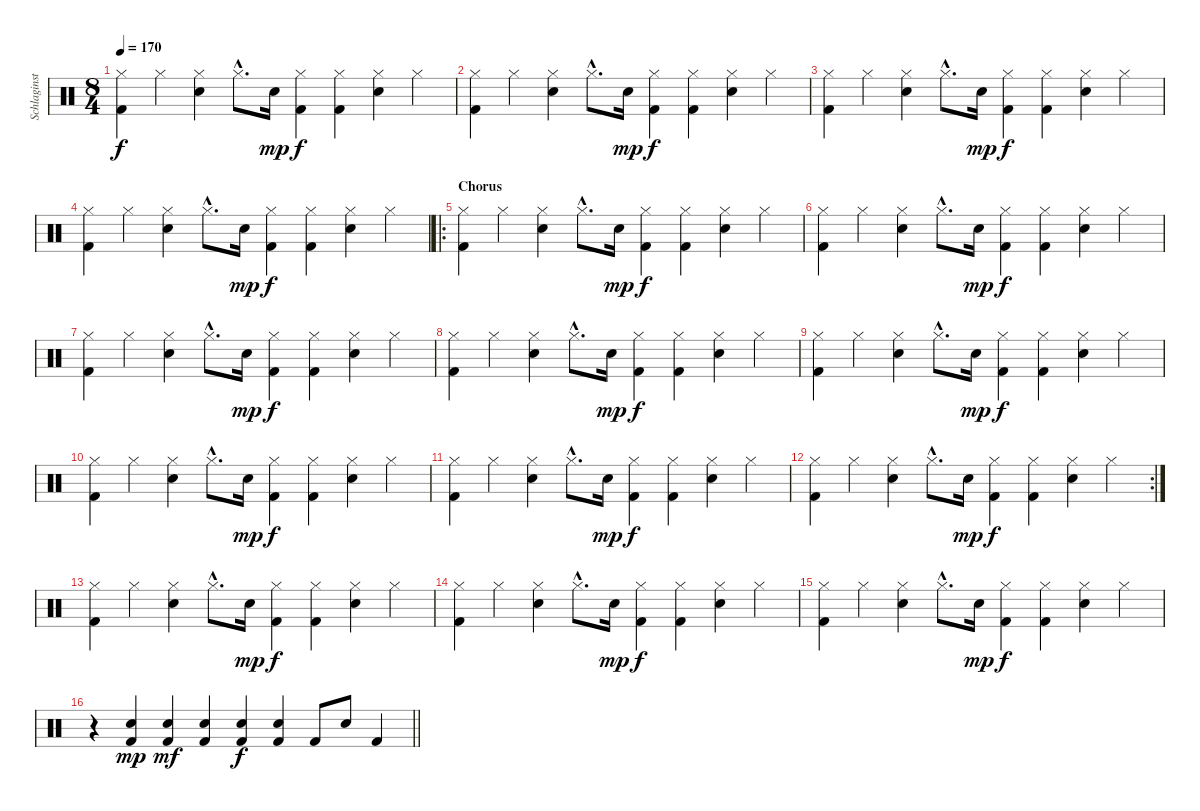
\track ("Schlaginstrumente - Auswahl" "Schlaginst") {instrument percussion}
\staff {score}
\articulation defaults
\ts (8 4)
\tempo 170
\clef neutral
\ks c
("Hi-Hat (closed)" "Kick (hit) 2").4{dy f} "Hi-Hat (closed)".4 ("Hi-Hat (closed)" "Electric Snare (hit)").4 "Hi-Hat (closed)"{hac}.8{d} "Electric Snare (hit)".16{dy mp} ("Hi-Hat (closed)" "Kick (hit) 2").4{dy f} ("Hi-Hat (closed)" "Kick (hit) 2").4 ("Hi-Hat (closed)" "Electric Snare (hit)").4 "Hi-Hat (closed)".4 |
("Hi-Hat (closed)" "Kick (hit) 2").4 "Hi-Hat (closed)".4 ("Hi-Hat (closed)" "Electric Snare (hit)").4 "Hi-Hat (closed)"{hac}.8{d} "Electric Snare (hit)".16{dy mp} ("Hi-Hat (closed)" "Kick (hit) 2").4{dy f} ("Hi-Hat (closed)" "Kick (hit) 2").4 ("Hi-Hat (closed)" "Electric Snare (hit)").4 "Hi-Hat (closed)".4 |
("Hi-Hat (closed)" "Kick (hit) 2").4 "Hi-Hat (closed)".4 ("Hi-Hat (closed)" "Electric Snare (hit)").4 "Hi-Hat (closed)"{hac}.8{d} "Electric Snare (hit)".16{dy mp} ("Hi-Hat (closed)" "Kick (hit) 2").4{dy f} ("Hi-Hat (closed)" "Kick (hit) 2").4 ("Hi-Hat (closed)" "Electric Snare (hit)").4 "Hi-Hat (closed)".4 |
("Hi-Hat (closed)" "Kick (hit) 2").4 "Hi-Hat (closed)".4 ("Hi-Hat (closed)" "Electric Snare (hit)").4 "Hi-Hat (closed)"{hac}.8{d} "Electric Snare (hit)".16{dy mp} ("Hi-Hat (closed)" "Kick (hit) 2").4{dy f} ("Hi-Hat (closed)" "Kick (hit) 2").4 ("Hi-Hat (closed)" "Electric Snare (hit)").4 "Hi-Hat (closed)".4 |
\ro
\section ("" "Chorus")
("Hi-Hat (closed)" "Kick (hit) 2").4 "Hi-Hat (closed)".4 ("Hi-Hat (closed)" "Electric Snare (hit)").4 "Hi-Hat (closed)"{hac}.8{d} "Electric Snare (hit)".16{dy mp} ("Hi-Hat (closed)" "Kick (hit) 2").4{dy f} ("Hi-Hat (closed)" "Kick (hit) 2").4 ("Hi-Hat (closed)" "Electric Snare (hit)").4 "Hi-Hat (closed)".4 |
("Hi-Hat (closed)" "Kick (hit) 2").4 "Hi-Hat (closed)".4 ("Hi-Hat (closed)" "Electric Snare (hit)").4 "Hi-Hat (closed)"{hac}.8{d} "Electric Snare (hit)".16{dy mp} ("Hi-Hat (closed)" "Kick (hit) 2").4{dy f} ("Hi-Hat (closed)" "Kick (hit) 2").4 ("Hi-Hat (closed)" "Electric Snare (hit)").4 "Hi-Hat (closed)".4 |
("Hi-Hat (closed)" "Kick (hit) 2").4 "Hi-Hat (closed)".4 ("Hi-Hat (closed)" "Electric Snare (hit)").4 "Hi-Hat (closed)"{hac}.8{d} "Electric Snare (hit)".16{dy mp} ("Hi-Hat (closed)" "Kick (hit) 2").4{dy f} ("Hi-Hat (closed)" "Kick (hit) 2").4 ("Hi-Hat (closed)" "Electric Snare (hit)").4 "Hi-Hat (closed)".4 |
("Hi-Hat (closed)" "Kick (hit) 2").4 "Hi-Hat (closed)".4 ("Hi-Hat (closed)" "Electric Snare (hit)").4 "Hi-Hat (closed)"{hac}.8{d} "Electric Snare (hit)".16{dy mp} ("Hi-Hat (closed)" "Kick (hit) 2").4{dy f} ("Hi-Hat (closed)" "Kick (hit) 2").4 ("Hi-Hat (closed)" "Electric Snare (hit)").4 "Hi-Hat (closed)".4 |
("Hi-Hat (closed)" "Kick (hit) 2").4 "Hi-Hat (closed)".4 ("Hi-Hat (closed)" "Electric Snare (hit)").4 "Hi-Hat (closed)"{hac}.8{d} "Electric Snare (hit)".16{dy mp} ("Hi-Hat (closed)" "Kick (hit) 2").4{dy f} ("Hi-Hat (closed)" "Kick (hit) 2").4 ("Hi-Hat (closed)" "Electric Snare (hit)").4 "Hi-Hat (closed)".4 |
("Hi-Hat (closed)" "Kick (hit) 2").4 "Hi-Hat (closed)".4 ("Hi-Hat (closed)" "Electric Snare (hit)").4 "Hi-Hat (closed)"{hac}.8{d} "Electric Snare (hit)".16{dy mp} ("Hi-Hat (closed)" "Kick (hit) 2").4{dy f} ("Hi-Hat (closed)" "Kick (hit) 2").4 ("Hi-Hat (closed)" "Electric Snare (hit)").4 "Hi-Hat (closed)".4 |
("Hi-Hat (closed)" "Kick (hit) 2").4 "Hi-Hat (closed)".4 ("Hi-Hat (closed)" "Electric Snare (hit)").4 "Hi-Hat (closed)"{hac}.8{d} "Electric Snare (hit)".16{dy mp} ("Hi-Hat (closed)" "Kick (hit) 2").4{dy f} ("Hi-Hat (closed)" "Kick (hit) 2").4 ("Hi-Hat (closed)" "Electric Snare (hit)").4 "Hi-Hat (closed)".4 |
\rc 2
("Hi-Hat (closed)" "Kick (hit) 2").4 "Hi-Hat (closed)".4 ("Hi-Hat (closed)" "Electric Snare (hit)").4 "Hi-Hat (closed)"{hac}.8{d} "Electric Snare (hit)".16{dy mp} ("Hi-Hat (closed)" "Kick (hit) 2").4{dy f} ("Hi-Hat (closed)" "Kick (hit) 2").4 ("Hi-Hat (closed)" "Electric Snare (hit)").4 "Hi-Hat (closed)".4 |
("Hi-Hat (closed)" "Kick (hit) 2").4 "Hi-Hat (closed)".4 ("Hi-Hat (closed)" "Electric Snare (hit)").4 "Hi-Hat (closed)"{hac}.8{d} "Electric Snare (hit)".16{dy mp} ("Hi-Hat (closed)" "Kick (hit) 2").4{dy f} ("Hi-Hat (closed)" "Kick (hit) 2").4 ("Hi-Hat (closed)" "Electric Snare (hit)").4 "Hi-Hat (closed)".4 |
("Hi-Hat (closed)" "Kick (hit) 2").4 "Hi-Hat (closed)".4 ("Hi-Hat (closed)" "Electric Snare (hit)").4 "Hi-Hat (closed)"{hac}.8{d} "Electric Snare (hit)".16{dy mp} ("Hi-Hat (closed)" "Kick (hit) 2").4{dy f} ("Hi-Hat (closed)" "Kick (hit) 2").4 ("Hi-Hat (closed)" "Electric Snare (hit)").4 "Hi-Hat (closed)".4 |
("Hi-Hat (closed)" "Kick (hit) 2").4 "Hi-Hat (closed)".4 ("Hi-Hat (closed)" "Electric Snare (hit)").4 "Hi-Hat (closed)"{hac}.8{d} "Electric Snare (hit)".16{dy mp} ("Hi-Hat (closed)" "Kick (hit) 2").4{dy f} ("Hi-Hat (closed)" "Kick (hit) 2").4 ("Hi-Hat (closed)" "Electric Snare (hit)").4 "Hi-Hat (closed)".4 |
\barLineRight lightlight
r.4 ("Electric Snare (hit)" "Kick (hit) 2").4{dy mp} ("Electric Snare (hit)" "Kick (hit) 2").4{dy mf} ("Electric Snare (hit)" "Kick (hit) 2").4 ("Electric Snare (hit)" "Kick (hit) 2").4{dy f} ("Electric Snare (hit)" "Kick (hit) 2").4 "Kick (hit) 2".8 "Electric Snare (hit)".8 "Kick (hit) 2".4
